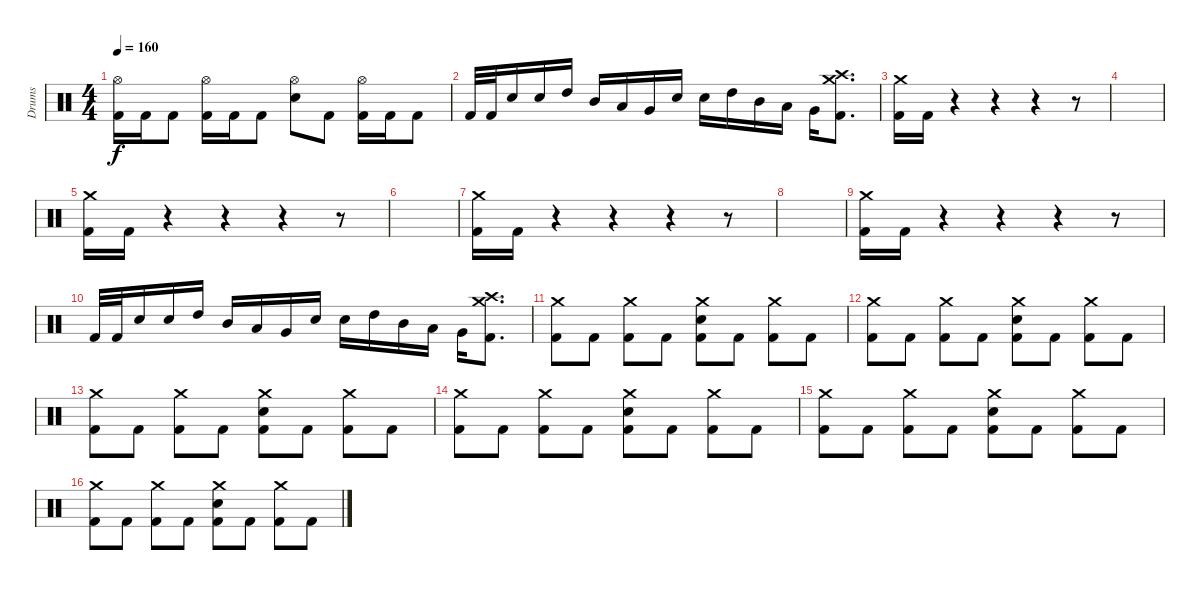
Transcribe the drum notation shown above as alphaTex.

\track ("Drums" "Drums") {instrument percussion}
\staff {score}
\articulation defaults
\ts (4 4)
\tempo 160
\clef neutral
\ks c
("Hi-Hat (open)" "Kick (hit) 2").16{dy f} "Kick (hit) 2".16 "Kick (hit) 2".8 ("Hi-Hat (open)" "Kick (hit) 2").16 "Kick (hit) 2".16 "Kick (hit) 2".8 ("Hi-Hat (open)" "Snare (hit) 2").8 "Kick (hit) 2".8 ("Hi-Hat (open)" "Kick (hit) 2").16 "Kick (hit) 2".16 "Kick (hit) 2".8 |
"Kick (hit) 2".32 "Kick (hit) 2".32 "Snare (hit) 2".16 "Snare (hit) 2".16 "High Tom (hit)".16 "Mid Tom (hit)".16 "Low Tom (hit)".16 "Very Low Tom (hit)".16 "Snare (hit) 2".16 "Snare (hit) 2".16 "High Tom (hit)".16 "Mid Tom (hit)".16 "Low Tom (hit)".16 "Very Low Tom (hit)".16 ("Crash medium (hit)" "Crash high (hit)" "Kick (hit) 2").8{d} |
("Crash medium (hit)" "Kick (hit) 2").16 "Kick (hit) 2".16 r.4 r.4 r.4 r.8 |
|
("Crash medium (hit)" "Kick (hit) 2").16 "Kick (hit) 2".16 r.4 r.4 r.4 r.8 |
|
("Crash medium (hit)" "Kick (hit) 2").16 "Kick (hit) 2".16 r.4 r.4 r.4 r.8 |
|
("Crash medium (hit)" "Kick (hit) 2").16 "Kick (hit) 2".16 r.4 r.4 r.4 r.8 |
"Kick (hit) 2".32 "Kick (hit) 2".32 "Snare (hit) 2".16 "Snare (hit) 2".16 "High Tom (hit)".16 "Mid Tom (hit)".16 "Low Tom (hit)".16 "Very Low Tom (hit)".16 "Snare (hit) 2".16 "Snare (hit) 2".16 "High Tom (hit)".16 "Mid Tom (hit)".16 "Low Tom (hit)".16 "Very Low Tom (hit)".16 ("Crash medium (hit)" "Crash high (hit)" "Kick (hit) 2").8{d} |
("Crash medium (hit)" "Kick (hit) 2").8 "Kick (hit) 2".8 ("Crash medium (hit)" "Kick (hit) 2").8 "Kick (hit) 2".8 ("Crash medium (hit)" "Snare (hit) 2" "Kick (hit) 2").8 "Kick (hit) 2".8 ("Crash medium (hit)" "Kick (hit) 2").8 "Kick (hit) 2".8 |
("Crash medium (hit)" "Kick (hit) 2").8 "Kick (hit) 2".8 ("Crash medium (hit)" "Kick (hit) 2").8 "Kick (hit) 2".8 ("Crash medium (hit)" "Snare (hit) 2" "Kick (hit) 2").8 "Kick (hit) 2".8 ("Crash medium (hit)" "Kick (hit) 2").8 "Kick (hit) 2".8 |
("Crash medium (hit)" "Kick (hit) 2").8 "Kick (hit) 2".8 ("Crash medium (hit)" "Kick (hit) 2").8 "Kick (hit) 2".8 ("Crash medium (hit)" "Snare (hit) 2" "Kick (hit) 2").8 "Kick (hit) 2".8 ("Crash medium (hit)" "Kick (hit) 2").8 "Kick (hit) 2".8 |
("Crash medium (hit)" "Kick (hit) 2").8 "Kick (hit) 2".8 ("Crash medium (hit)" "Kick (hit) 2").8 "Kick (hit) 2".8 ("Crash medium (hit)" "Snare (hit) 2" "Kick (hit) 2").8 "Kick (hit) 2".8 ("Crash medium (hit)" "Kick (hit) 2").8 "Kick (hit) 2".8 |
("Crash medium (hit)" "Kick (hit) 2").8 "Kick (hit) 2".8 ("Crash medium (hit)" "Kick (hit) 2").8 "Kick (hit) 2".8 ("Crash medium (hit)" "Snare (hit) 2" "Kick (hit) 2").8 "Kick (hit) 2".8 ("Crash medium (hit)" "Kick (hit) 2").8 "Kick (hit) 2".8 |
("Crash medium (hit)" "Kick (hit) 2").8 "Kick (hit) 2".8 ("Crash medium (hit)" "Kick (hit) 2").8 "Kick (hit) 2".8 ("Crash medium (hit)" "Snare (hit) 2" "Kick (hit) 2").8 "Kick (hit) 2".8 ("Crash medium (hit)" "Kick (hit) 2").8 "Kick (hit) 2".8
